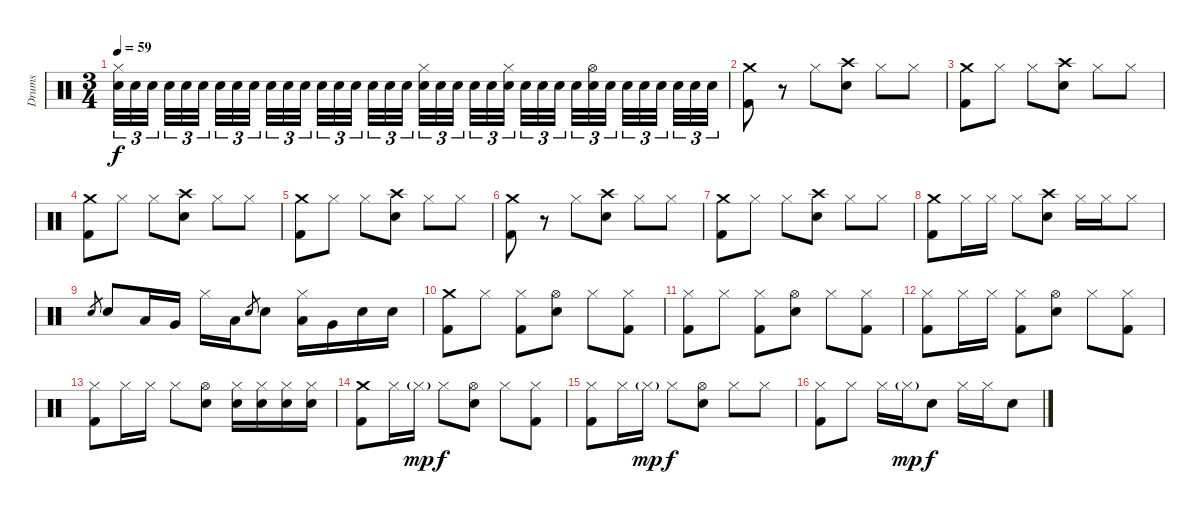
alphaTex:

\track ("Drums" "Drums") {instrument percussion}
\staff {score}
\articulation defaults
\ts (3 4)
\tempo 59
\clef neutral
\ks c
("Hi-Hat (closed)" "Snare (hit) 2").32{tu (3 2) dy f volume 0} "Snare (hit) 2".32{tu (3 2) volume 13} "Snare (hit) 2".32{tu (3 2) beam splitsecondary} "Snare (hit) 2".32{tu (3 2)} "Snare (hit) 2".32{tu (3 2)} "Snare (hit) 2".32{tu (3 2) beam splitsecondary} "Snare (hit) 2".32{tu (3 2)} "Snare (hit) 2".32{tu (3 2)} "Snare (hit) 2".32{tu (3 2) beam splitsecondary} "Snare (hit) 2".32{tu (3 2)} "Snare (hit) 2".32{tu (3 2)} "Snare (hit) 2".32{tu (3 2)} "Snare (hit) 2".32{tu (3 2)} "Snare (hit) 2".32{tu (3 2)} "Snare (hit) 2".32{tu (3 2) beam splitsecondary} "Snare (hit) 2".32{tu (3 2)} "Snare (hit) 2".32{tu (3 2)} "Snare (hit) 2".32{tu (3 2) beam splitsecondary} ("Hi-Hat (closed)" "Snare (hit) 2").32{tu (3 2)} "Snare (hit) 2".32{tu (3 2)} "Snare (hit) 2".32{tu (3 2) beam splitsecondary} "Snare (hit) 2".32{tu (3 2)} "Snare (hit) 2".32{tu (3 2)} ("Hi-Hat (closed)" "Snare (hit) 2").32{tu (3 2)} "Snare (hit) 2".32{tu (3 2)} "Snare (hit) 2".32{tu (3 2)} "Snare (hit) 2".32{tu (3 2) beam splitsecondary} "Snare (hit) 2".32{tu (3 2)} ("Hi-Hat (open)" "Snare (hit) 2").32{tu (3 2)} "Snare (hit) 2".32{tu (3 2) beam splitsecondary} "Snare (hit) 2".32{tu (3 2)} "Snare (hit) 2".32{tu (3 2)} "Snare (hit) 2".32{tu (3 2) beam splitsecondary} "Snare (hit) 2".32{tu (3 2)} "Snare (hit) 2".32{tu (3 2)} "Snare (hit) 2".32{tu (3 2)} |
("Crash medium (hit)" "Kick (hit) 2").8 r.8 "Hi-Hat (closed)".8 ("Crash high (hit)" "Snare (hit) 2").8 "Hi-Hat (closed)".8 "Hi-Hat (closed)".8 |
("Crash medium (hit)" "Kick (hit) 2").8 "Hi-Hat (closed)".8 "Hi-Hat (closed)".8 ("Crash high (hit)" "Snare (hit) 2").8 "Hi-Hat (closed)".8 "Hi-Hat (closed)".8 |
("Crash medium (hit)" "Kick (hit) 2").8 "Hi-Hat (closed)".8 "Hi-Hat (closed)".8 ("Crash high (hit)" "Snare (hit) 2").8 "Hi-Hat (closed)".8 "Hi-Hat (closed)".8 |
("Crash medium (hit)" "Kick (hit) 2").8 "Hi-Hat (closed)".8 "Hi-Hat (closed)".8 ("Crash high (hit)" "Snare (hit) 2").8 "Hi-Hat (closed)".8 "Hi-Hat (closed)".8 |
("Crash medium (hit)" "Kick (hit) 2").8 r.8 "Hi-Hat (closed)".8 ("Crash high (hit)" "Snare (hit) 2").8 "Hi-Hat (closed)".8 "Hi-Hat (closed)".8 |
("Crash medium (hit)" "Kick (hit) 2").8 "Hi-Hat (closed)".8 "Hi-Hat (closed)".8 ("Crash high (hit)" "Snare (hit) 2").8 "Hi-Hat (closed)".8 "Hi-Hat (closed)".8 |
("Crash medium (hit)" "Kick (hit) 2").8 "Hi-Hat (closed)".16 "Hi-Hat (closed)".16 "Hi-Hat (closed)".8 ("Crash high (hit)" "Snare (hit) 2").8 "Hi-Hat (closed)".16 "Hi-Hat (closed)".16 "Hi-Hat (closed)".8 |
"Snare (hit) 2".8{gr} "Snare (hit) 2".8 "Low Tom (hit)".16 "Very Low Tom (hit)".16 "Hi-Hat (closed)".16 "Low Tom (hit)".16 "Snare (hit) 2".8{gr} "Snare (hit) 2".8 ("Hi-Hat (closed)" "Low Tom (hit)").16 "Very Low Tom (hit)".16 "Snare (hit) 2".16 "Snare (hit) 2".16 |
("Crash medium (hit)" "Kick (hit) 2").8 "Hi-Hat (closed)".8 ("Hi-Hat (closed)" "Kick (hit) 2").8 ("Hi-Hat (open)" "Snare (hit) 2").8 "Hi-Hat (closed)".8 ("Hi-Hat (closed)" "Kick (hit) 2").8 |
("Hi-Hat (closed)" "Kick (hit) 2").8 "Hi-Hat (closed)".8 ("Hi-Hat (closed)" "Kick (hit) 2").8 ("Hi-Hat (open)" "Snare (hit) 2").8 "Hi-Hat (closed)".8 ("Hi-Hat (closed)" "Kick (hit) 2").8 |
("Hi-Hat (closed)" "Kick (hit) 2").8 "Hi-Hat (closed)".16 "Hi-Hat (closed)".16 ("Hi-Hat (closed)" "Kick (hit) 2").8 ("Hi-Hat (open)" "Snare (hit) 2").8 "Hi-Hat (closed)".8 ("Hi-Hat (closed)" "Kick (hit) 2").8 |
("Hi-Hat (closed)" "Kick (hit) 2").8 "Hi-Hat (closed)".16 "Hi-Hat (closed)".16 "Hi-Hat (closed)".8 ("Hi-Hat (open)" "Snare (hit) 2").8 ("Hi-Hat (closed)" "Snare (hit) 2").16 ("Hi-Hat (closed)" "Snare (hit) 2").16 ("Hi-Hat (closed)" "Snare (hit) 2").16 ("Hi-Hat (closed)" "Snare (hit) 2").16 |
("Crash medium (hit)" "Kick (hit) 2").8 "Hi-Hat (closed)".16 "Hi-Hat (closed)"{g}.16{dy mp} "Hi-Hat (closed)".8{dy f} ("Hi-Hat (open)" "Snare (hit) 2").8 "Hi-Hat (closed)".8 ("Hi-Hat (closed)" "Kick (hit) 2").8 |
("Hi-Hat (closed)" "Kick (hit) 2").8 "Hi-Hat (closed)".16 "Hi-Hat (closed)"{g}.16{dy mp} "Hi-Hat (closed)".8{dy f} ("Hi-Hat (open)" "Snare (hit) 2").8 "Hi-Hat (closed)".8 "Hi-Hat (closed)".8 |
("Hi-Hat (closed)" "Kick (hit) 2").8 "Hi-Hat (closed)".8 "Hi-Hat (closed)".16 "Hi-Hat (closed)"{g}.16{dy mp} "Snare (hit) 2".8{dy f} "Hi-Hat (closed)".16 "Hi-Hat (closed)".16 "Snare (hit) 2".8
